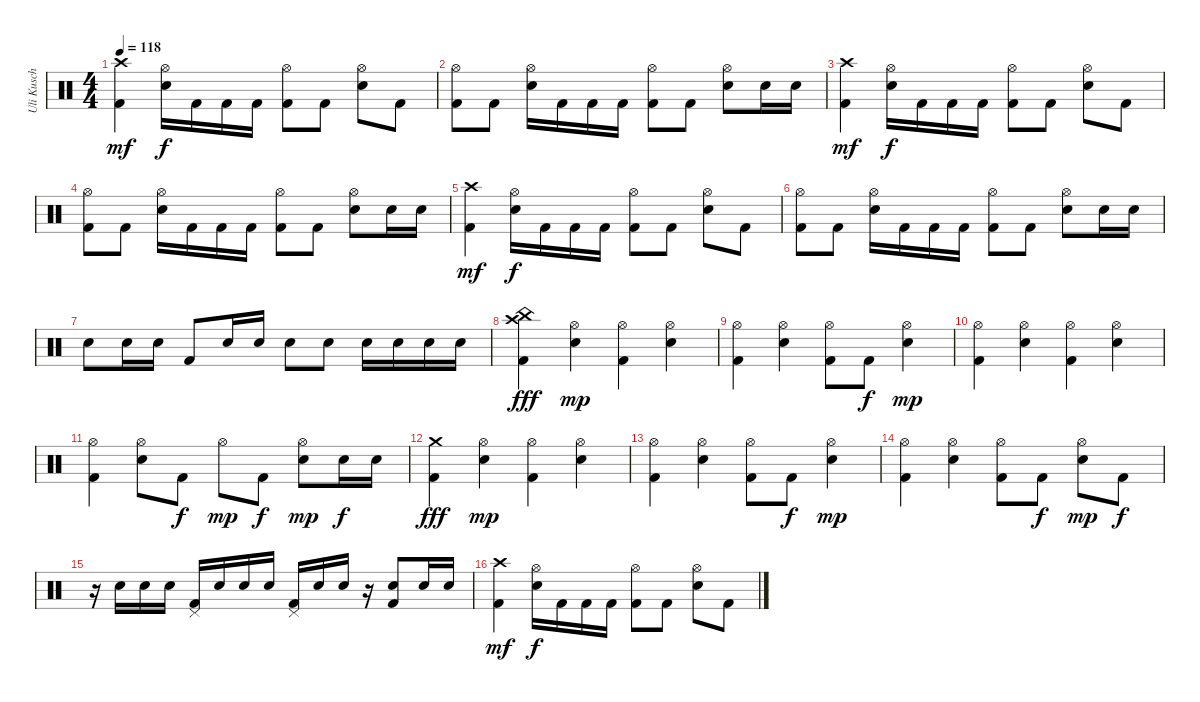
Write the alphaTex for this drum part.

\track ("Uli Kusch" "Uli Kusch") {instrument percussion}
\staff {score}
\articulation defaults
\ts (4 4)
\tempo 118
\clef neutral
\ks c
("Kick (hit) 2" "Crash high (hit)").4{dy mf} ("Electric Snare (hit)" "Hi-Hat (open)").16{dy f} "Kick (hit) 2".16 "Kick (hit) 2".16 "Kick (hit) 2".16 ("Kick (hit) 2" "Hi-Hat (open)").8 "Kick (hit) 2".8 ("Electric Snare (hit)" "Hi-Hat (open)").8 "Kick (hit) 2".8 |
("Kick (hit) 2" "Hi-Hat (open)").8 "Kick (hit) 2".8 ("Electric Snare (hit)" "Hi-Hat (open)").16 "Kick (hit) 2".16 "Kick (hit) 2".16 "Kick (hit) 2".16 ("Kick (hit) 2" "Hi-Hat (open)").8 "Kick (hit) 2".8 ("Electric Snare (hit)" "Hi-Hat (open)").8 "Electric Snare (hit)".16 "Electric Snare (hit)".16 |
("Kick (hit) 2" "Crash high (hit)").4{dy mf} ("Electric Snare (hit)" "Hi-Hat (open)").16{dy f} "Kick (hit) 2".16 "Kick (hit) 2".16 "Kick (hit) 2".16 ("Kick (hit) 2" "Hi-Hat (open)").8 "Kick (hit) 2".8 ("Electric Snare (hit)" "Hi-Hat (open)").8 "Kick (hit) 2".8 |
("Kick (hit) 2" "Hi-Hat (open)").8 "Kick (hit) 2".8 ("Electric Snare (hit)" "Hi-Hat (open)").16 "Kick (hit) 2".16 "Kick (hit) 2".16 "Kick (hit) 2".16 ("Kick (hit) 2" "Hi-Hat (open)").8 "Kick (hit) 2".8 ("Electric Snare (hit)" "Hi-Hat (open)").8 "Electric Snare (hit)".16 "Electric Snare (hit)".16 |
("Kick (hit) 2" "Crash high (hit)").4{dy mf} ("Electric Snare (hit)" "Hi-Hat (open)").16{dy f} "Kick (hit) 2".16 "Kick (hit) 2".16 "Kick (hit) 2".16 ("Kick (hit) 2" "Hi-Hat (open)").8 "Kick (hit) 2".8 ("Electric Snare (hit)" "Hi-Hat (open)").8 "Kick (hit) 2".8 |
("Kick (hit) 2" "Hi-Hat (open)").8 "Kick (hit) 2".8 ("Electric Snare (hit)" "Hi-Hat (open)").16 "Kick (hit) 2".16 "Kick (hit) 2".16 "Kick (hit) 2".16 ("Kick (hit) 2" "Hi-Hat (open)").8 "Kick (hit) 2".8 ("Electric Snare (hit)" "Hi-Hat (open)").8 "Electric Snare (hit)".16 "Electric Snare (hit)".16 |
"Electric Snare (hit)".8 "Electric Snare (hit)".16 "Electric Snare (hit)".16 "Kick (hit) 2".8 "Electric Snare (hit)".16 "Electric Snare (hit)".16 "Electric Snare (hit)".8 "Electric Snare (hit)".8 "Electric Snare (hit)".16 "Electric Snare (hit)".16 "Electric Snare (hit)".16 "Electric Snare (hit)".16 |
("Crash high (hit)" "China (hit)" "Kick (hit) 2").4{dy fff} ("Electric Snare (hit)" "Hi-Hat (open)").4{dy mp} ("Kick (hit) 2" "Hi-Hat (open)").4 ("Electric Snare (hit)" "Hi-Hat (open)").4 |
("Kick (hit) 2" "Hi-Hat (open)").4 ("Electric Snare (hit)" "Hi-Hat (open)").4 ("Kick (hit) 2" "Hi-Hat (open)").8 "Kick (hit) 2".8{dy f} ("Electric Snare (hit)" "Hi-Hat (open)").4{dy mp} |
("Kick (hit) 2" "Hi-Hat (open)").4 ("Electric Snare (hit)" "Hi-Hat (open)").4 ("Kick (hit) 2" "Hi-Hat (open)").4 ("Electric Snare (hit)" "Hi-Hat (open)").4 |
("Kick (hit) 2" "Hi-Hat (open)").4 ("Electric Snare (hit)" "Hi-Hat (open)").8 "Kick (hit) 2".8{dy f} "Hi-Hat (open)".8{dy mp} "Kick (hit) 2".8{dy f} ("Electric Snare (hit)" "Hi-Hat (open)").8{dy mp} "Electric Snare (hit)".16{dy f} "Electric Snare (hit)".16 |
("Crash medium (hit)" "Kick (hit) 2").4{dy fff} ("Electric Snare (hit)" "Hi-Hat (open)").4{dy mp} ("Kick (hit) 2" "Hi-Hat (open)").4 ("Electric Snare (hit)" "Hi-Hat (open)").4 |
("Kick (hit) 2" "Hi-Hat (open)").4 ("Electric Snare (hit)" "Hi-Hat (open)").4 ("Kick (hit) 2" "Hi-Hat (open)").8 "Kick (hit) 2".8{dy f} ("Electric Snare (hit)" "Hi-Hat (open)").4{dy mp} |
("Kick (hit) 2" "Hi-Hat (open)").4 ("Electric Snare (hit)" "Hi-Hat (open)").4 ("Kick (hit) 2" "Hi-Hat (open)").8 "Kick (hit) 2".8{dy f} ("Hi-Hat (open)" "Electric Snare (hit)").8{dy mp} "Kick (hit) 2".8{dy f} |
r.16 "Electric Snare (hit)".16 "Electric Snare (hit)".16 "Electric Snare (hit)".16 ("Pedal Hi-Hat (hit)" "Kick (hit) 2").16 "Electric Snare (hit)".16 "Electric Snare (hit)".16 "Electric Snare (hit)".16 ("Pedal Hi-Hat (hit)" "Kick (hit) 2").16 "Electric Snare (hit)".16 "Electric Snare (hit)".16 r.16 ("Electric Snare (hit)" "Kick (hit) 2").8 "Electric Snare (hit)".16 "Electric Snare (hit)".16 |
("Kick (hit) 2" "Crash high (hit)").4{dy mf} ("Electric Snare (hit)" "Hi-Hat (open)").16{dy f} "Kick (hit) 2".16 "Kick (hit) 2".16 "Kick (hit) 2".16 ("Kick (hit) 2" "Hi-Hat (open)").8 "Kick (hit) 2".8 ("Electric Snare (hit)" "Hi-Hat (open)").8 "Kick (hit) 2".8
